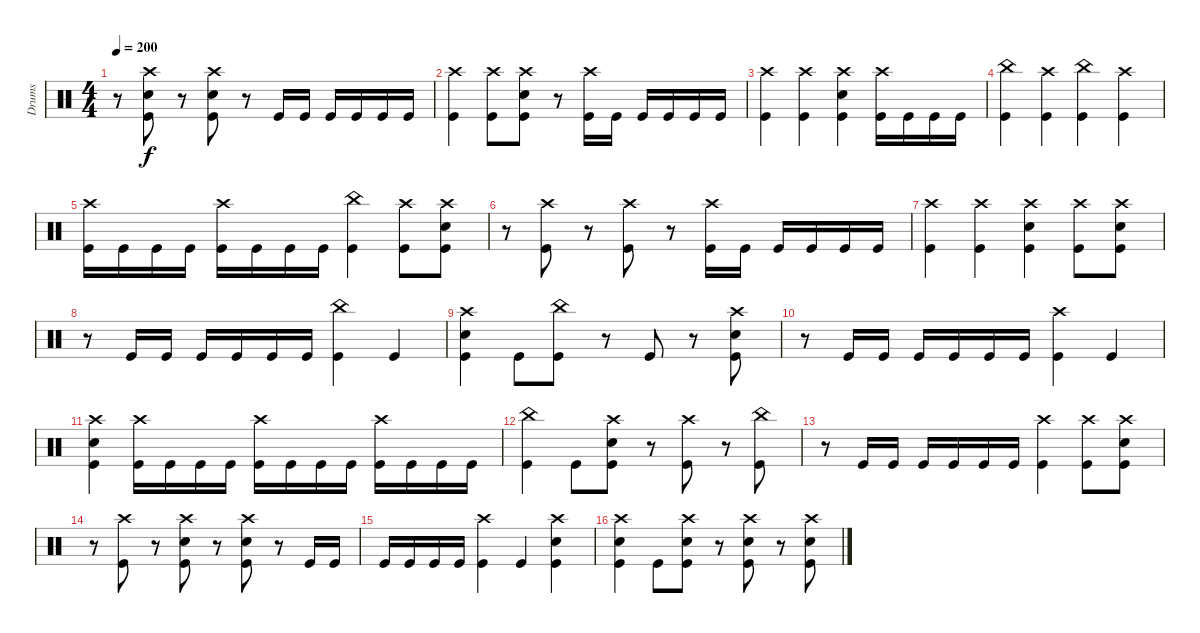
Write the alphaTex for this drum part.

\track ("Drums" "Drums") {instrument percussion}
\staff {score}
\articulation defaults
\ts (4 4)
\tempo 200
\clef neutral
\ks c
r.8{dy f} ("Crash high (hit)" "Snare (hit) 2" "Kick (hit)").8 r.8 ("Crash high (hit)" "Snare (hit) 2" "Kick (hit)").8 r.8 "Kick (hit)".16 "Kick (hit)".16 "Kick (hit)".16 "Kick (hit)".16 "Kick (hit)".16 "Kick (hit)".16 |
("Crash high (hit)" "Kick (hit)").4 ("Crash high (hit)" "Kick (hit)").8 ("Crash high (hit)" "Snare (hit) 2" "Kick (hit)").8 r.8 ("Crash high (hit)" "Kick (hit)").16 "Kick (hit)".16 "Kick (hit)".16 "Kick (hit)".16 "Kick (hit)".16 "Kick (hit)".16 |
("Crash high (hit)" "Kick (hit)").4 ("Crash high (hit)" "Kick (hit)").4 ("Crash high (hit)" "Snare (hit) 2" "Kick (hit)").4 ("Crash high (hit)" "Kick (hit)").16 "Kick (hit)".16 "Kick (hit)".16 "Kick (hit)".16 |
("China (hit)" "Kick (hit)").4 ("Crash high (hit)" "Kick (hit)").4 ("China (hit)" "Kick (hit)").4 ("Crash high (hit)" "Kick (hit)").4 |
("Crash high (hit)" "Kick (hit)").16 "Kick (hit)".16 "Kick (hit)".16 "Kick (hit)".16 ("Crash high (hit)" "Kick (hit)").16 "Kick (hit)".16 "Kick (hit)".16 "Kick (hit)".16 ("China (hit)" "Kick (hit)").4 ("Crash high (hit)" "Kick (hit)").8 ("Crash high (hit)" "Snare (hit) 2" "Kick (hit)").8 |
r.8 ("Crash high (hit)" "Kick (hit)").8 r.8 ("Crash high (hit)" "Kick (hit)").8 r.8 ("Crash high (hit)" "Kick (hit)").16 "Kick (hit)".16 "Kick (hit)".16 "Kick (hit)".16 "Kick (hit)".16 "Kick (hit)".16 |
("Crash high (hit)" "Kick (hit)").4 ("Crash high (hit)" "Kick (hit)").4 ("Crash high (hit)" "Snare (hit) 2" "Kick (hit)").4 ("Crash high (hit)" "Kick (hit)").8 ("Crash high (hit)" "Snare (hit) 2" "Kick (hit)").8 |
r.8 "Kick (hit)".16 "Kick (hit)".16 "Kick (hit)".16 "Kick (hit)".16 "Kick (hit)".16 "Kick (hit)".16 ("China (hit)" "Kick (hit)").4 "Kick (hit)".4 |
("Crash high (hit)" "Snare (hit) 2" "Kick (hit)").4 "Kick (hit)".8 ("China (hit)" "Kick (hit)").8 r.8 "Kick (hit)".8 r.8 ("Crash high (hit)" "Snare (hit) 2" "Kick (hit)").8 |
r.8 "Kick (hit)".16 "Kick (hit)".16 "Kick (hit)".16 "Kick (hit)".16 "Kick (hit)".16 "Kick (hit)".16 ("Crash high (hit)" "Kick (hit)").4 "Kick (hit)".4 |
("Crash high (hit)" "Snare (hit) 2" "Kick (hit)").4 ("Crash high (hit)" "Kick (hit)").16 "Kick (hit)".16 "Kick (hit)".16 "Kick (hit)".16 ("Crash high (hit)" "Kick (hit)").16 "Kick (hit)".16 "Kick (hit)".16 "Kick (hit)".16 ("Crash high (hit)" "Kick (hit)").16 "Kick (hit)".16 "Kick (hit)".16 "Kick (hit)".16 |
("China (hit)" "Kick (hit)").4 "Kick (hit)".8 ("Crash high (hit)" "Snare (hit) 2" "Kick (hit)").8 r.8 ("Crash high (hit)" "Kick (hit)").8 r.8 ("China (hit)" "Kick (hit)").8 |
r.8 "Kick (hit)".16 "Kick (hit)".16 "Kick (hit)".16 "Kick (hit)".16 "Kick (hit)".16 "Kick (hit)".16 ("Crash high (hit)" "Kick (hit)").4 ("Crash high (hit)" "Kick (hit)").8 ("Crash high (hit)" "Snare (hit) 2" "Kick (hit)").8 |
r.8 ("Crash high (hit)" "Kick (hit)").8 r.8 ("Crash high (hit)" "Snare (hit) 2" "Kick (hit)").8 r.8 ("Crash high (hit)" "Snare (hit) 2" "Kick (hit)").8 r.8 "Kick (hit)".16 "Kick (hit)".16 |
"Kick (hit)".16 "Kick (hit)".16 "Kick (hit)".16 "Kick (hit)".16 ("Crash high (hit)" "Kick (hit)").4 "Kick (hit)".4 ("Crash high (hit)" "Snare (hit) 2" "Kick (hit)").4 |
("Crash high (hit)" "Snare (hit) 2" "Kick (hit)").4 "Kick (hit)".8 ("Crash high (hit)" "Snare (hit) 2" "Kick (hit)").8 r.8 ("Crash high (hit)" "Snare (hit) 2" "Kick (hit)").8 r.8 ("Crash high (hit)" "Snare (hit) 2" "Kick (hit)").8
